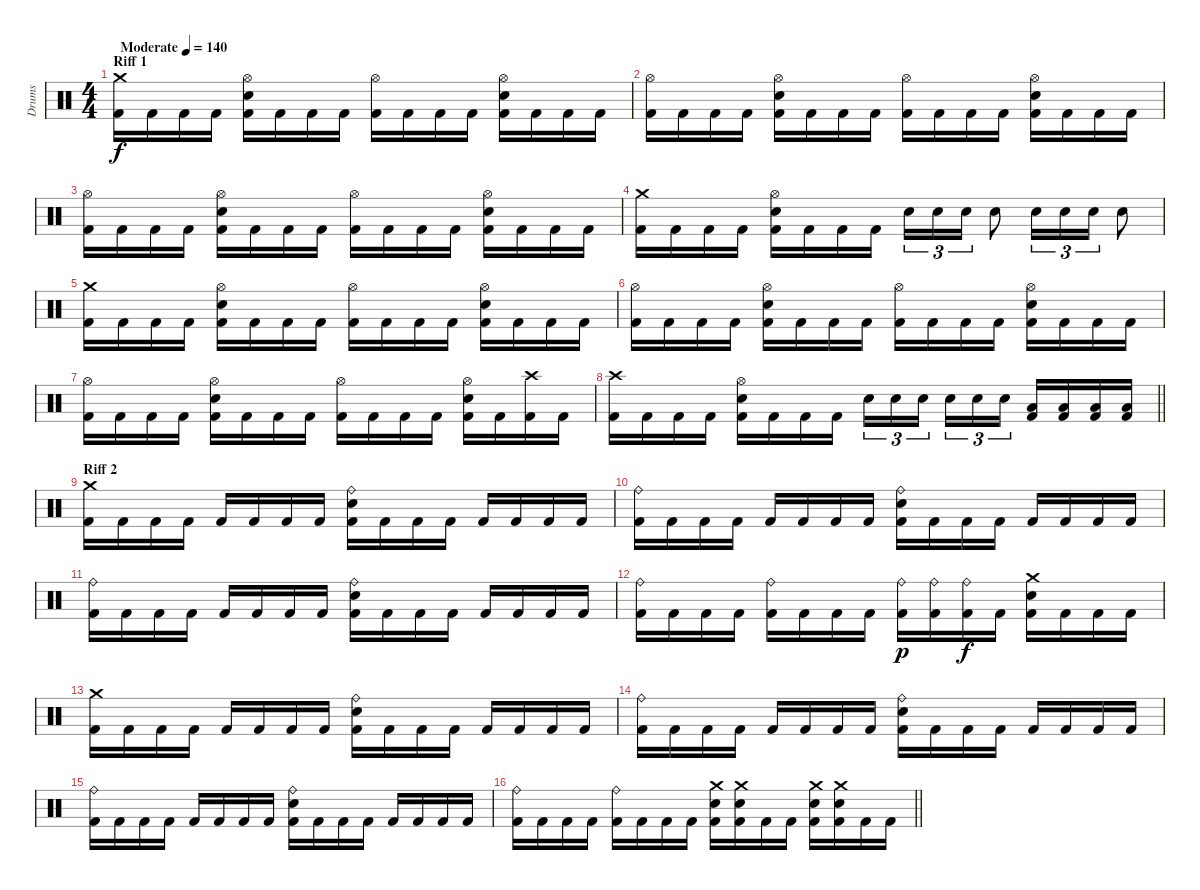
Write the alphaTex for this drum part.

\track ("Drums" "Drums") {instrument percussion}
\staff {score}
\articulation defaults
\ts (4 4)
\section ("" "Riff 1")
\tempo (140 "Moderate")
\clef neutral
\ks c
("Crash medium (hit)" "Kick (hit) 2").16{dy f} "Kick (hit) 2".16 "Kick (hit) 2".16 "Kick (hit) 2".16 ("Kick (hit) 2" "Electric Snare (hit)" "Hi-Hat (open)").16 "Kick (hit) 2".16 "Kick (hit) 2".16 "Kick (hit) 2".16 ("Kick (hit) 2" "Hi-Hat (open)").16 "Kick (hit) 2".16 "Kick (hit) 2".16 "Kick (hit) 2".16 ("Kick (hit) 2" "Electric Snare (hit)" "Hi-Hat (open)").16 "Kick (hit) 2".16 "Kick (hit) 2".16 "Kick (hit) 2".16 |
("Kick (hit) 2" "Hi-Hat (open)").16 "Kick (hit) 2".16 "Kick (hit) 2".16 "Kick (hit) 2".16 ("Kick (hit) 2" "Electric Snare (hit)" "Hi-Hat (open)").16 "Kick (hit) 2".16 "Kick (hit) 2".16 "Kick (hit) 2".16 ("Kick (hit) 2" "Hi-Hat (open)").16 "Kick (hit) 2".16 "Kick (hit) 2".16 "Kick (hit) 2".16 ("Kick (hit) 2" "Electric Snare (hit)" "Hi-Hat (open)").16 "Kick (hit) 2".16 "Kick (hit) 2".16 "Kick (hit) 2".16 |
("Kick (hit) 2" "Hi-Hat (open)").16 "Kick (hit) 2".16 "Kick (hit) 2".16 "Kick (hit) 2".16 ("Kick (hit) 2" "Electric Snare (hit)" "Hi-Hat (open)").16 "Kick (hit) 2".16 "Kick (hit) 2".16 "Kick (hit) 2".16 ("Kick (hit) 2" "Hi-Hat (open)").16 "Kick (hit) 2".16 "Kick (hit) 2".16 "Kick (hit) 2".16 ("Kick (hit) 2" "Electric Snare (hit)" "Hi-Hat (open)").16 "Kick (hit) 2".16 "Kick (hit) 2".16 "Kick (hit) 2".16 |
("Kick (hit) 2" "Crash medium (hit)").16 "Kick (hit) 2".16 "Kick (hit) 2".16 "Kick (hit) 2".16 ("Kick (hit) 2" "Electric Snare (hit)" "Hi-Hat (open)").16 "Kick (hit) 2".16 "Kick (hit) 2".16 "Kick (hit) 2".16 "Electric Snare (hit)".16{tu (3 2)} "Electric Snare (hit)".16{tu (3 2)} "Electric Snare (hit)".16{tu (3 2)} "Electric Snare (hit)".8 "Electric Snare (hit)".16{tu (3 2)} "Electric Snare (hit)".16{tu (3 2)} "Electric Snare (hit)".16{tu (3 2)} "Electric Snare (hit)".8 |
("Crash medium (hit)" "Kick (hit) 2").16 "Kick (hit) 2".16 "Kick (hit) 2".16 "Kick (hit) 2".16 ("Kick (hit) 2" "Electric Snare (hit)" "Hi-Hat (open)").16 "Kick (hit) 2".16 "Kick (hit) 2".16 "Kick (hit) 2".16 ("Kick (hit) 2" "Hi-Hat (open)").16 "Kick (hit) 2".16 "Kick (hit) 2".16 "Kick (hit) 2".16 ("Kick (hit) 2" "Electric Snare (hit)" "Hi-Hat (open)").16 "Kick (hit) 2".16 "Kick (hit) 2".16 "Kick (hit) 2".16 |
("Kick (hit) 2" "Hi-Hat (open)").16 "Kick (hit) 2".16 "Kick (hit) 2".16 "Kick (hit) 2".16 ("Kick (hit) 2" "Electric Snare (hit)" "Hi-Hat (open)").16 "Kick (hit) 2".16 "Kick (hit) 2".16 "Kick (hit) 2".16 ("Kick (hit) 2" "Hi-Hat (open)").16 "Kick (hit) 2".16 "Kick (hit) 2".16 "Kick (hit) 2".16 ("Kick (hit) 2" "Electric Snare (hit)" "Hi-Hat (open)").16 "Kick (hit) 2".16 "Kick (hit) 2".16 "Kick (hit) 2".16 |
("Kick (hit) 2" "Hi-Hat (open)").16 "Kick (hit) 2".16 "Kick (hit) 2".16 "Kick (hit) 2".16 ("Kick (hit) 2" "Electric Snare (hit)" "Hi-Hat (open)").16 "Kick (hit) 2".16 "Kick (hit) 2".16 "Kick (hit) 2".16 ("Kick (hit) 2" "Hi-Hat (open)").16 "Kick (hit) 2".16 "Kick (hit) 2".16 "Kick (hit) 2".16 ("Kick (hit) 2" "Electric Snare (hit)" "Hi-Hat (open)").16 "Kick (hit) 2".16 ("Kick (hit) 2" "Crash high (hit)").16 "Kick (hit) 2".16 |
\barLineRight lightlight
("Kick (hit) 2" "Crash high (hit)").16 "Kick (hit) 2".16 "Kick (hit) 2".16 "Kick (hit) 2".16 ("Kick (hit) 2" "Electric Snare (hit)" "Hi-Hat (open)").16 "Kick (hit) 2".16 "Kick (hit) 2".16 "Kick (hit) 2".16 "Electric Snare (hit)".16{tu (3 2)} "Electric Snare (hit)".16{tu (3 2)} "Electric Snare (hit)".16{tu (3 2) beam splitsecondary} "Electric Snare (hit)".16{tu (3 2)} "Electric Snare (hit)".16{tu (3 2)} "Electric Snare (hit)".16{tu (3 2)} ("Kick (hit) 2" "Low Tom (hit)").16 ("Kick (hit) 2" "Low Tom (hit)").16 ("Kick (hit) 2" "Low Floor Tom (hit)").16 ("Kick (hit) 2" "Low Floor Tom (hit)").16 |
\section ("" "Riff 2")
("Crash medium (hit)" "Kick (hit) 2").16 "Kick (hit) 2".16 "Kick (hit) 2".16 "Kick (hit) 2".16 "Kick (hit) 2".16 "Kick (hit) 2".16 "Kick (hit) 2".16 "Kick (hit) 2".16 ("Electric Snare (hit)" "Ride (bell)" "Kick (hit) 2").16 "Kick (hit) 2".16 "Kick (hit) 2".16 "Kick (hit) 2".16 "Kick (hit) 2".16 "Kick (hit) 2".16 "Kick (hit) 2".16 "Kick (hit) 2".16 |
("Ride (bell)" "Kick (hit) 2").16 "Kick (hit) 2".16 "Kick (hit) 2".16 "Kick (hit) 2".16 "Kick (hit) 2".16 "Kick (hit) 2".16 "Kick (hit) 2".16 "Kick (hit) 2".16 ("Electric Snare (hit)" "Ride (bell)" "Kick (hit) 2").16 "Kick (hit) 2".16 "Kick (hit) 2".16 "Kick (hit) 2".16 "Kick (hit) 2".16 "Kick (hit) 2".16 "Kick (hit) 2".16 "Kick (hit) 2".16 |
("Ride (bell)" "Kick (hit) 2").16 "Kick (hit) 2".16 "Kick (hit) 2".16 "Kick (hit) 2".16 "Kick (hit) 2".16 "Kick (hit) 2".16 "Kick (hit) 2".16 "Kick (hit) 2".16 ("Electric Snare (hit)" "Ride (bell)" "Kick (hit) 2").16 "Kick (hit) 2".16 "Kick (hit) 2".16 "Kick (hit) 2".16 "Kick (hit) 2".16 "Kick (hit) 2".16 "Kick (hit) 2".16 "Kick (hit) 2".16 |
("Ride (bell)" "Kick (hit) 2").16 "Kick (hit) 2".16 "Kick (hit) 2".16 "Kick (hit) 2".16 ("Ride (bell)" "Kick (hit) 2").16 "Kick (hit) 2".16 "Kick (hit) 2".16 "Kick (hit) 2".16 ("Ride (bell)" "Kick (hit) 2").16{dy p} ("Ride (bell)" "Kick (hit) 2").16 ("Ride (bell)" "Kick (hit) 2").16{dy f} "Kick (hit) 2".16 ("Kick (hit) 2" "Electric Snare (hit)" "Crash medium (hit)").16 "Kick (hit) 2".16 "Kick (hit) 2".16 "Kick (hit) 2".16 |
("Crash medium (hit)" "Kick (hit) 2").16 "Kick (hit) 2".16 "Kick (hit) 2".16 "Kick (hit) 2".16 "Kick (hit) 2".16 "Kick (hit) 2".16 "Kick (hit) 2".16 "Kick (hit) 2".16 ("Electric Snare (hit)" "Ride (bell)" "Kick (hit) 2").16 "Kick (hit) 2".16 "Kick (hit) 2".16 "Kick (hit) 2".16 "Kick (hit) 2".16 "Kick (hit) 2".16 "Kick (hit) 2".16 "Kick (hit) 2".16 |
("Ride (bell)" "Kick (hit) 2").16 "Kick (hit) 2".16 "Kick (hit) 2".16 "Kick (hit) 2".16 "Kick (hit) 2".16 "Kick (hit) 2".16 "Kick (hit) 2".16 "Kick (hit) 2".16 ("Electric Snare (hit)" "Ride (bell)" "Kick (hit) 2").16 "Kick (hit) 2".16 "Kick (hit) 2".16 "Kick (hit) 2".16 "Kick (hit) 2".16 "Kick (hit) 2".16 "Kick (hit) 2".16 "Kick (hit) 2".16 |
("Ride (bell)" "Kick (hit) 2").16 "Kick (hit) 2".16 "Kick (hit) 2".16 "Kick (hit) 2".16 "Kick (hit) 2".16 "Kick (hit) 2".16 "Kick (hit) 2".16 "Kick (hit) 2".16 ("Electric Snare (hit)" "Ride (bell)" "Kick (hit) 2").16 "Kick (hit) 2".16 "Kick (hit) 2".16 "Kick (hit) 2".16 "Kick (hit) 2".16 "Kick (hit) 2".16 "Kick (hit) 2".16 "Kick (hit) 2".16 |
\barLineRight lightlight
("Ride (bell)" "Kick (hit) 2").16 "Kick (hit) 2".16 "Kick (hit) 2".16 "Kick (hit) 2".16 ("Ride (bell)" "Kick (hit) 2").16 "Kick (hit) 2".16 "Kick (hit) 2".16 "Kick (hit) 2".16 ("Electric Snare (hit)" "Crash medium (hit)" "Kick (hit) 2").16 ("Electric Snare (hit)" "Crash medium (hit)" "Kick (hit) 2").16 "Kick (hit) 2".16 "Kick (hit) 2".16 ("Electric Snare (hit)" "Crash medium (hit)" "Kick (hit) 2").16 ("Electric Snare (hit)" "Crash medium (hit)" "Kick (hit) 2").16 "Kick (hit) 2".16 "Kick (hit) 2".16
